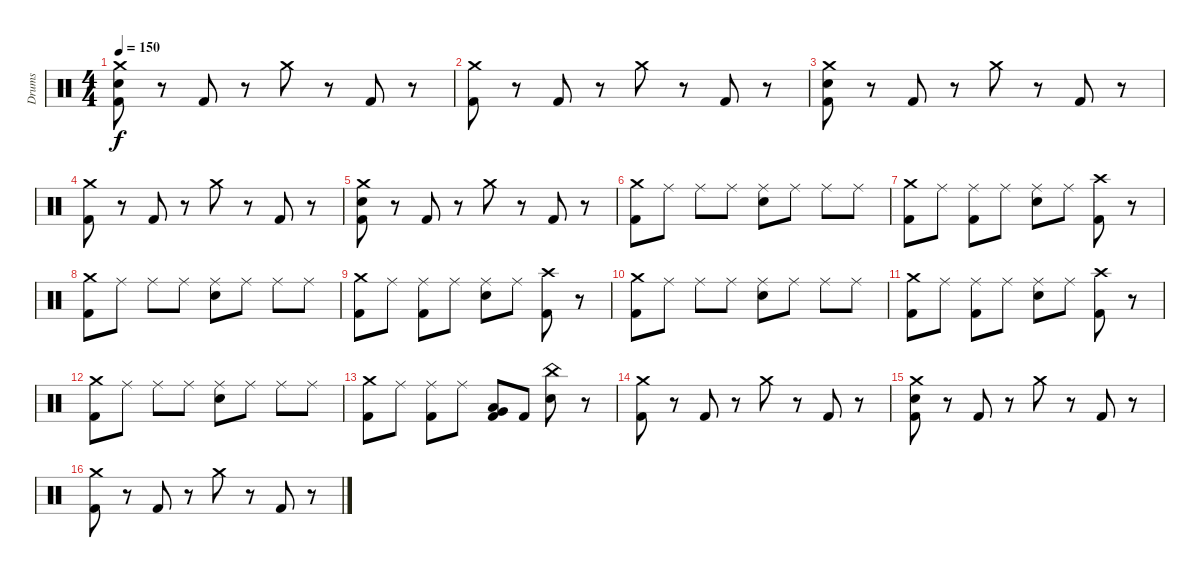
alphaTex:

\track ("Drums" "Drums") {instrument percussion}
\staff {score}
\articulation defaults
\ts (4 4)
\tempo 150
\clef neutral
\ks c
("Crash medium (hit)" "Electric Snare (hit)" "Kick (hit) 2").8{dy f} r.8 "Kick (hit) 2".8 r.8 "Crash medium (hit)".8 r.8 "Kick (hit) 2".8 r.8 |
("Crash medium (hit)" "Kick (hit) 2").8 r.8 "Kick (hit) 2".8 r.8 "Crash medium (hit)".8 r.8 "Kick (hit) 2".8 r.8 |
("Crash medium (hit)" "Electric Snare (hit)" "Kick (hit) 2").8 r.8 "Kick (hit) 2".8 r.8 "Crash medium (hit)".8 r.8 "Kick (hit) 2".8 r.8 |
("Crash medium (hit)" "Kick (hit) 2").8 r.8 "Kick (hit) 2".8 r.8 "Crash medium (hit)".8 r.8 "Kick (hit) 2".8 r.8 |
("Crash medium (hit)" "Electric Snare (hit)" "Kick (hit) 2").8 r.8 "Kick (hit) 2".8 r.8 "Crash medium (hit)".8 r.8 "Kick (hit) 2".8 r.8 |
("Crash medium (hit)" "Kick (hit) 2").8 "Ride (middle)".8 "Ride (middle)".8 "Ride (middle)".8 ("Ride (middle)" "Electric Snare (hit)").8 "Ride (middle)".8 "Ride (middle)".8 "Ride (middle)".8 |
("Crash medium (hit)" "Kick (hit) 2").8 "Ride (middle)".8 ("Ride (middle)" "Kick (hit) 2").8 "Ride (middle)".8 ("Ride (middle)" "Electric Snare (hit)").8 "Ride (middle)".8 ("Crash high (hit)" "Kick (hit) 2").8 r.8 |
("Crash medium (hit)" "Kick (hit) 2").8 "Ride (middle)".8 "Ride (middle)".8 "Ride (middle)".8 ("Ride (middle)" "Electric Snare (hit)").8 "Ride (middle)".8 "Ride (middle)".8 "Ride (middle)".8 |
("Crash medium (hit)" "Kick (hit) 2").8 "Ride (middle)".8 ("Ride (middle)" "Kick (hit) 2").8 "Ride (middle)".8 ("Ride (middle)" "Electric Snare (hit)").8 "Ride (middle)".8 ("Crash high (hit)" "Kick (hit) 2").8 r.8 |
("Crash medium (hit)" "Kick (hit) 2").8 "Ride (middle)".8 "Ride (middle)".8 "Ride (middle)".8 ("Ride (middle)" "Electric Snare (hit)").8 "Ride (middle)".8 "Ride (middle)".8 "Ride (middle)".8 |
("Crash medium (hit)" "Kick (hit) 2").8 "Ride (middle)".8 ("Ride (middle)" "Kick (hit) 2").8 "Ride (middle)".8 ("Ride (middle)" "Electric Snare (hit)").8 "Ride (middle)".8 ("Crash high (hit)" "Kick (hit) 2").8 r.8 |
("Crash medium (hit)" "Kick (hit) 2").8 "Ride (middle)".8 "Ride (middle)".8 "Ride (middle)".8 ("Ride (middle)" "Electric Snare (hit)").8 "Ride (middle)".8 "Ride (middle)".8 "Ride (middle)".8 |
("Crash medium (hit)" "Kick (hit) 2").8 "Ride (middle)".8 ("Ride (middle)" "Kick (hit) 2").8 "Ride (middle)".8 ("Very Low Tom (hit)" "Low Floor Tom (hit)" "Kick (hit) 2").8 "Kick (hit) 2".8 ("China (hit)" "Electric Snare (hit)").8 r.8 |
("Crash medium (hit)" "Kick (hit) 2").8 r.8 "Kick (hit) 2".8 r.8 "Crash medium (hit)".8 r.8 "Kick (hit) 2".8 r.8 |
("Crash medium (hit)" "Electric Snare (hit)" "Kick (hit) 2").8 r.8 "Kick (hit) 2".8 r.8 "Crash medium (hit)".8 r.8 "Kick (hit) 2".8 r.8 |
("Crash medium (hit)" "Kick (hit) 2").8 r.8 "Kick (hit) 2".8 r.8 "Crash medium (hit)".8 r.8 "Kick (hit) 2".8 r.8
